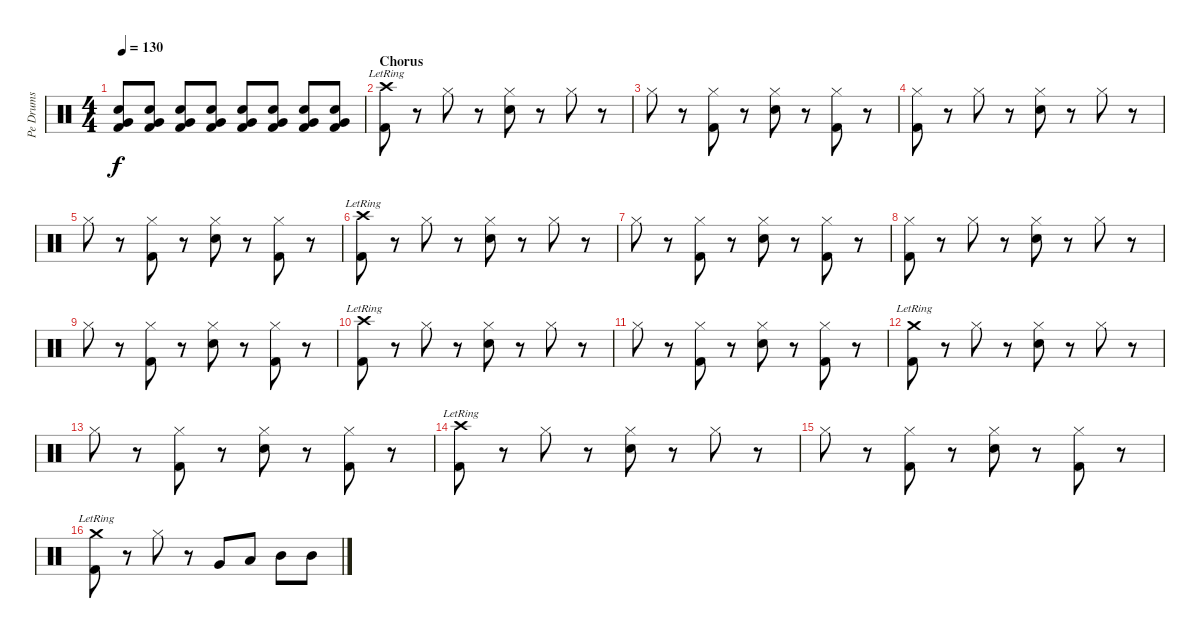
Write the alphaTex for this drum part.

\track ("Pe Drums" "Pe Drums") {instrument percussion}
\staff {score}
\articulation defaults
\ts (4 4)
\tempo 130
\clef neutral
\ks c
("Electric Snare (hit)" "Very Low Tom (hit)" "Kick (hit) 2").8{dy f} ("Electric Snare (hit)" "Very Low Tom (hit)" "Kick (hit) 2").8 ("Electric Snare (hit)" "Very Low Tom (hit)" "Kick (hit) 2").8 ("Electric Snare (hit)" "Very Low Tom (hit)" "Kick (hit) 2").8 ("Electric Snare (hit)" "Very Low Tom (hit)" "Kick (hit) 2").8 ("Electric Snare (hit)" "Very Low Tom (hit)" "Kick (hit) 2").8 ("Electric Snare (hit)" "Very Low Tom (hit)" "Kick (hit) 2").8 ("Electric Snare (hit)" "Very Low Tom (hit)" "Kick (hit) 2").8 |
\section ("" "Chorus")
("Crash high (hit)"{lr} "Kick (hit) 2").8 r.8 "Hi-Hat (closed)".8 r.8 ("Hi-Hat (closed)" "Electric Snare (hit)").8 r.8 "Hi-Hat (closed)".8 r.8 |
"Hi-Hat (closed)".8 r.8 ("Hi-Hat (closed)" "Kick (hit) 2").8 r.8 ("Hi-Hat (closed)" "Electric Snare (hit)").8 r.8 ("Hi-Hat (closed)" "Kick (hit) 2").8 r.8 |
("Hi-Hat (closed)" "Kick (hit) 2").8 r.8 "Hi-Hat (closed)".8 r.8 ("Hi-Hat (closed)" "Electric Snare (hit)").8 r.8 "Hi-Hat (closed)".8 r.8 |
"Hi-Hat (closed)".8 r.8 ("Hi-Hat (closed)" "Kick (hit) 2").8 r.8 ("Hi-Hat (closed)" "Electric Snare (hit)").8 r.8 ("Hi-Hat (closed)" "Kick (hit) 2").8 r.8 |
("Crash high (hit)"{lr} "Kick (hit) 2").8 r.8 "Hi-Hat (closed)".8 r.8 ("Hi-Hat (closed)" "Electric Snare (hit)").8 r.8 "Hi-Hat (closed)".8 r.8 |
"Hi-Hat (closed)".8 r.8 ("Hi-Hat (closed)" "Kick (hit) 2").8 r.8 ("Hi-Hat (closed)" "Electric Snare (hit)").8 r.8 ("Hi-Hat (closed)" "Kick (hit) 2").8 r.8 |
("Hi-Hat (closed)" "Kick (hit) 2").8 r.8 "Hi-Hat (closed)".8 r.8 ("Hi-Hat (closed)" "Electric Snare (hit)").8 r.8 "Hi-Hat (closed)".8 r.8 |
"Hi-Hat (closed)".8 r.8 ("Hi-Hat (closed)" "Kick (hit) 2").8 r.8 ("Hi-Hat (closed)" "Electric Snare (hit)").8 r.8 ("Hi-Hat (closed)" "Kick (hit) 2").8 r.8 |
("Crash high (hit)"{lr} "Kick (hit) 2").8 r.8 "Hi-Hat (closed)".8 r.8 ("Hi-Hat (closed)" "Electric Snare (hit)").8 r.8 "Hi-Hat (closed)".8 r.8 |
"Hi-Hat (closed)".8 r.8 ("Hi-Hat (closed)" "Kick (hit) 2").8 r.8 ("Hi-Hat (closed)" "Electric Snare (hit)").8 r.8 ("Hi-Hat (closed)" "Kick (hit) 2").8 r.8 |
("Crash medium (hit)"{lr} "Kick (hit) 2").8 r.8 "Hi-Hat (closed)".8 r.8 ("Hi-Hat (closed)" "Electric Snare (hit)").8 r.8 "Hi-Hat (closed)".8 r.8 |
"Hi-Hat (closed)".8 r.8 ("Hi-Hat (closed)" "Kick (hit) 2").8 r.8 ("Hi-Hat (closed)" "Electric Snare (hit)").8 r.8 ("Hi-Hat (closed)" "Kick (hit) 2").8 r.8 |
("Crash high (hit)"{lr} "Kick (hit) 2").8 r.8 "Hi-Hat (closed)".8 r.8 ("Hi-Hat (closed)" "Electric Snare (hit)").8 r.8 "Hi-Hat (closed)".8 r.8 |
"Hi-Hat (closed)".8 r.8 ("Hi-Hat (closed)" "Kick (hit) 2").8 r.8 ("Hi-Hat (closed)" "Electric Snare (hit)").8 r.8 ("Hi-Hat (closed)" "Kick (hit) 2").8 r.8 |
("Crash medium (hit)"{lr} "Kick (hit) 2").8 r.8 "Hi-Hat (closed)".8 r.8 "Very Low Tom (hit)".8 "Low Tom (hit)".8 "Mid Tom (hit)".8 "Mid Tom (hit)".8
